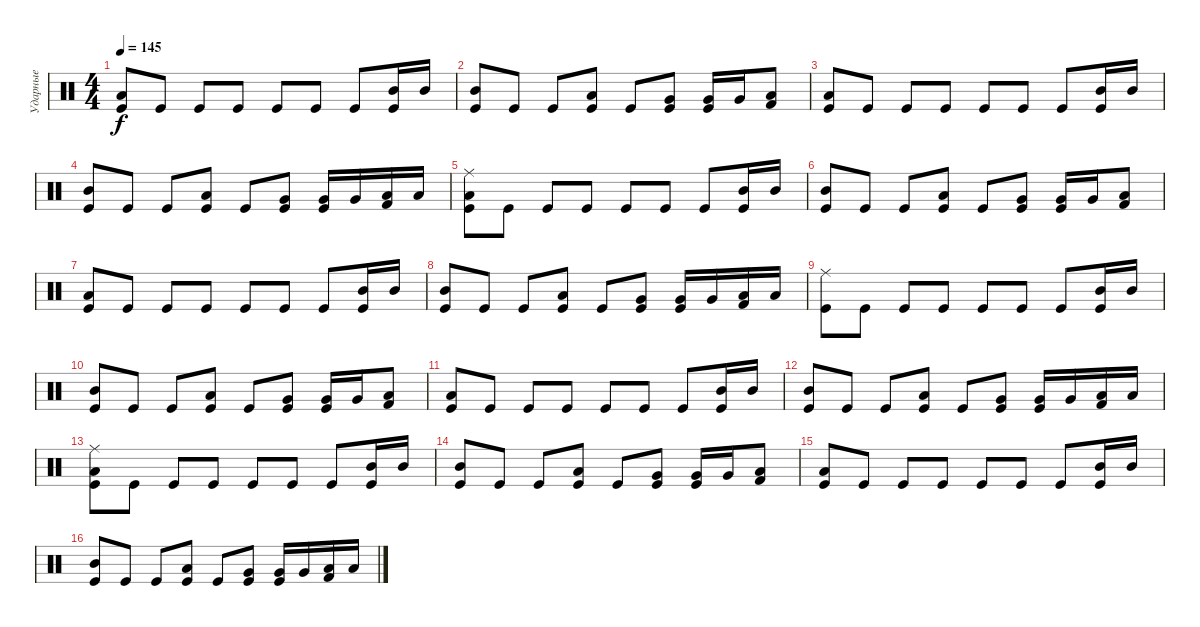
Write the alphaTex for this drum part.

\track ("Ударные" "Ударные") {instrument percussion}
\staff {score}
\articulation defaults
\ts (4 4)
\tempo 145
\clef neutral
\ks c
("Low Floor Tom (hit)" "Kick (hit)").8{dy f} "Kick (hit)".8 "Kick (hit)".8 "Kick (hit)".8 "Kick (hit)".8 "Kick (hit)".8 "Kick (hit)".8 ("Mid Tom (hit)" "Kick (hit)").16 "Mid Tom (hit)".16 |
("Mid Tom (hit)" "Kick (hit)").8 "Kick (hit)".8 "Kick (hit)".8 ("Low Tom (hit)" "Kick (hit)").8 "Kick (hit)".8 ("Very Low Tom (hit)" "Kick (hit)").8 ("Very Low Tom (hit)" "Kick (hit)").16 "Very Low Tom (hit)".16 ("Low Floor Tom (hit)" "Kick (hit) 2").8 |
("Low Floor Tom (hit)" "Kick (hit)").8 "Kick (hit)".8 "Kick (hit)".8 "Kick (hit)".8 "Kick (hit)".8 "Kick (hit)".8 "Kick (hit)".8 ("Mid Tom (hit)" "Kick (hit)").16 "Mid Tom (hit)".16 |
("Mid Tom (hit)" "Kick (hit)").8 "Kick (hit)".8 "Kick (hit)".8 ("Low Tom (hit)" "Kick (hit)").8 "Kick (hit)".8 ("Very Low Tom (hit)" "Kick (hit)").8 ("Very Low Tom (hit)" "Kick (hit)").16 "Very Low Tom (hit)".16 ("Low Floor Tom (hit)" "Kick (hit) 2").16 "Low Floor Tom (hit)".16 |
("Ride (middle)" "Kick (hit)" "Low Floor Tom (hit)").8 "Kick (hit)".8 "Kick (hit)".8 "Kick (hit)".8 "Kick (hit)".8 "Kick (hit)".8 "Kick (hit)".8 ("Mid Tom (hit)" "Kick (hit)").16 "Mid Tom (hit)".16 |
("Mid Tom (hit)" "Kick (hit)").8 "Kick (hit)".8 "Kick (hit)".8 ("Low Tom (hit)" "Kick (hit)").8 "Kick (hit)".8 ("Very Low Tom (hit)" "Kick (hit)").8 ("Very Low Tom (hit)" "Kick (hit)").16 "Very Low Tom (hit)".16 ("Low Floor Tom (hit)" "Kick (hit) 2").8 |
("Kick (hit)" "Low Floor Tom (hit)").8 "Kick (hit)".8 "Kick (hit)".8 "Kick (hit)".8 "Kick (hit)".8 "Kick (hit)".8 "Kick (hit)".8 ("Mid Tom (hit)" "Kick (hit)").16 "Mid Tom (hit)".16 |
("Mid Tom (hit)" "Kick (hit)").8 "Kick (hit)".8 "Kick (hit)".8 ("Low Tom (hit)" "Kick (hit)").8 "Kick (hit)".8 ("Very Low Tom (hit)" "Kick (hit)").8 ("Very Low Tom (hit)" "Kick (hit)").16 "Very Low Tom (hit)".16 ("Low Floor Tom (hit)" "Kick (hit) 2").16 "Low Floor Tom (hit)".16 |
("Ride (middle)" "Kick (hit)").8 "Kick (hit)".8 "Kick (hit)".8 "Kick (hit)".8 "Kick (hit)".8 "Kick (hit)".8 "Kick (hit)".8 ("Mid Tom (hit)" "Kick (hit)").16 "Mid Tom (hit)".16 |
("Mid Tom (hit)" "Kick (hit)").8 "Kick (hit)".8 "Kick (hit)".8 ("Low Tom (hit)" "Kick (hit)").8 "Kick (hit)".8 ("Very Low Tom (hit)" "Kick (hit)").8 ("Very Low Tom (hit)" "Kick (hit)").16 "Very Low Tom (hit)".16 ("Low Floor Tom (hit)" "Kick (hit) 2").8 |
("Low Floor Tom (hit)" "Kick (hit)").8 "Kick (hit)".8 "Kick (hit)".8 "Kick (hit)".8 "Kick (hit)".8 "Kick (hit)".8 "Kick (hit)".8 ("Mid Tom (hit)" "Kick (hit)").16 "Mid Tom (hit)".16 |
("Mid Tom (hit)" "Kick (hit)").8 "Kick (hit)".8 "Kick (hit)".8 ("Low Tom (hit)" "Kick (hit)").8 "Kick (hit)".8 ("Very Low Tom (hit)" "Kick (hit)").8 ("Very Low Tom (hit)" "Kick (hit)").16 "Very Low Tom (hit)".16 ("Low Floor Tom (hit)" "Kick (hit) 2").16 "Low Floor Tom (hit)".16 |
("Ride (middle)" "Kick (hit)" "Low Floor Tom (hit)").8 "Kick (hit)".8 "Kick (hit)".8 "Kick (hit)".8 "Kick (hit)".8 "Kick (hit)".8 "Kick (hit)".8 ("Mid Tom (hit)" "Kick (hit)").16 "Mid Tom (hit)".16 |
("Mid Tom (hit)" "Kick (hit)").8 "Kick (hit)".8 "Kick (hit)".8 ("Low Tom (hit)" "Kick (hit)").8 "Kick (hit)".8 ("Very Low Tom (hit)" "Kick (hit)").8 ("Very Low Tom (hit)" "Kick (hit)").16 "Very Low Tom (hit)".16 ("Low Floor Tom (hit)" "Kick (hit) 2").8 |
("Kick (hit)" "Low Floor Tom (hit)").8 "Kick (hit)".8 "Kick (hit)".8 "Kick (hit)".8 "Kick (hit)".8 "Kick (hit)".8 "Kick (hit)".8 ("Mid Tom (hit)" "Kick (hit)").16 "Mid Tom (hit)".16 |
("Mid Tom (hit)" "Kick (hit)").8 "Kick (hit)".8 "Kick (hit)".8 ("Low Tom (hit)" "Kick (hit)").8 "Kick (hit)".8 ("Very Low Tom (hit)" "Kick (hit)").8 ("Very Low Tom (hit)" "Kick (hit)").16 "Very Low Tom (hit)".16 ("Low Floor Tom (hit)" "Kick (hit) 2").16 "Low Floor Tom (hit)".16
